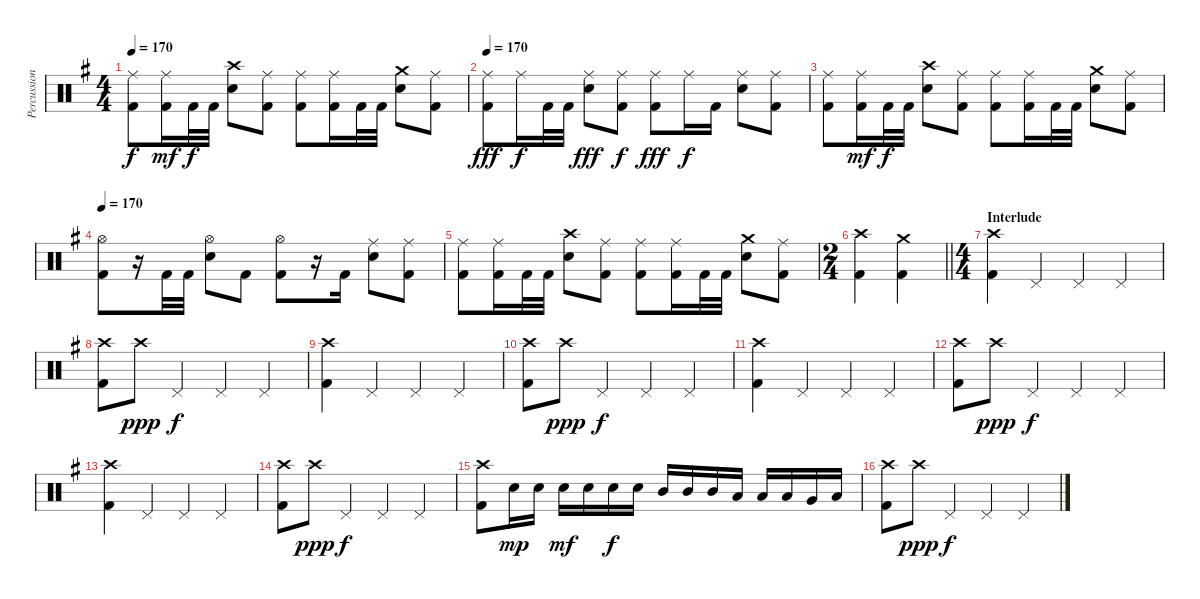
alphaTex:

\track ("Percussion" "Percussion") {instrument percussion}
\staff {score}
\articulation defaults
\ts (4 4)
\tempo 170
\clef neutral
\ks g
("Ride (middle)" "Kick (hit) 2").8{dy f} ("Ride (middle)" "Kick (hit) 2").16{dy mf} "Kick (hit) 2".32{dy f} "Kick (hit) 2".32 ("Crash high (hit)" "Snare (hit) 2").8 ("Ride (middle)" "Kick (hit) 2").8 ("Ride (middle)" "Kick (hit) 2").8 ("Ride (middle)" "Kick (hit) 2").16 "Kick (hit) 2".32 "Kick (hit) 2".32 ("Crash medium (hit)" "Snare (hit) 2").8 ("Ride (middle)" "Kick (hit) 2").8 |
\tempo 170
("Ride (middle)" "Kick (hit) 2").8{dy fff} "Ride (middle)".16{dy f} "Kick (hit) 2".32 "Kick (hit) 2".32 ("Ride (middle)" "Snare (hit) 2").8{dy fff} ("Ride (middle)" "Kick (hit) 2").8{dy f} ("Ride (middle)" "Kick (hit) 2").8{dy fff} "Ride (middle)".16{dy f} "Kick (hit) 2".16 ("Ride (middle)" "Snare (hit) 2").8 ("Ride (middle)" "Kick (hit) 2").8 |
("Ride (middle)" "Kick (hit) 2").8 ("Ride (middle)" "Kick (hit) 2").16{dy mf} "Kick (hit) 2".32{dy f} "Kick (hit) 2".32 ("Crash high (hit)" "Snare (hit) 2").8 ("Ride (middle)" "Kick (hit) 2").8 ("Ride (middle)" "Kick (hit) 2").8 ("Ride (middle)" "Kick (hit) 2").16 "Kick (hit) 2".32 "Kick (hit) 2".32 ("Crash medium (hit)" "Snare (hit) 2").8 ("Ride (middle)" "Kick (hit) 2").8 |
\tempo 170
("Hi-Hat (open)" "Kick (hit) 2").8 r.16 "Kick (hit) 2".32 "Kick (hit) 2".32 ("Hi-Hat (open)" "Snare (hit) 2").8 "Kick (hit) 2".8 ("Hi-Hat (open)" "Kick (hit) 2").8 r.16 "Kick (hit) 2".16 ("Ride (middle)" "Snare (hit) 2").8 ("Ride (middle)" "Kick (hit) 2").8 |
("Ride (middle)" "Kick (hit) 2").8 ("Ride (middle)" "Kick (hit) 2").16 "Kick (hit) 2".32 "Kick (hit) 2".32 ("Crash high (hit)" "Snare (hit) 2").8 ("Ride (middle)" "Kick (hit) 2").8 ("Ride (middle)" "Kick (hit) 2").8 ("Ride (middle)" "Kick (hit) 2").16 "Kick (hit) 2".32 "Kick (hit) 2".32 ("Crash medium (hit)" "Snare (hit) 2").8 ("Ride (middle)" "Kick (hit) 2").8 |
\ts (2 4)
\barLineRight lightlight
("Crash high (hit)" "Kick (hit) 2").4 ("Crash medium (hit)" "Kick (hit) 2").4 |
\ts (4 4)
\section ("" "Interlude")
("Crash high (hit)" "Kick (hit) 2").4 "Pedal Hi-Hat (hit)".4 "Pedal Hi-Hat (hit)".4 "Pedal Hi-Hat (hit)".4 |
("Crash high (hit)" "Kick (hit) 2").8 "Crash high (hit)".8{dy ppp} "Pedal Hi-Hat (hit)".4{dy f} "Pedal Hi-Hat (hit)".4 "Pedal Hi-Hat (hit)".4 |
("Crash high (hit)" "Kick (hit) 2").4 "Pedal Hi-Hat (hit)".4 "Pedal Hi-Hat (hit)".4 "Pedal Hi-Hat (hit)".4 |
("Crash high (hit)" "Kick (hit) 2").8 "Crash high (hit)".8{dy ppp} "Pedal Hi-Hat (hit)".4{dy f} "Pedal Hi-Hat (hit)".4 "Pedal Hi-Hat (hit)".4 |
("Crash high (hit)" "Kick (hit) 2").4 "Pedal Hi-Hat (hit)".4 "Pedal Hi-Hat (hit)".4 "Pedal Hi-Hat (hit)".4 |
("Crash high (hit)" "Kick (hit) 2").8 "Crash high (hit)".8{dy ppp} "Pedal Hi-Hat (hit)".4{dy f} "Pedal Hi-Hat (hit)".4 "Pedal Hi-Hat (hit)".4 |
("Crash high (hit)" "Kick (hit) 2").4 "Pedal Hi-Hat (hit)".4 "Pedal Hi-Hat (hit)".4 "Pedal Hi-Hat (hit)".4 |
("Crash high (hit)" "Kick (hit) 2").8 "Crash high (hit)".8{dy ppp} "Pedal Hi-Hat (hit)".4{dy f} "Pedal Hi-Hat (hit)".4 "Pedal Hi-Hat (hit)".4 |
("Crash high (hit)" "Kick (hit) 2").8 "Snare (hit) 2".16{dy mp} "Snare (hit) 2".16 "Snare (hit) 2".16{dy mf} "Snare (hit) 2".16 "Snare (hit) 2".16{dy f} "Snare (hit) 2".16 "Mid Tom (hit)".16 "Mid Tom (hit)".16 "Mid Tom (hit)".16 "Low Tom (hit)".16 "Low Tom (hit)".16 "Low Tom (hit)".16 "Very Low Tom (hit)".16 "Low Floor Tom (hit)".16 |
("Crash high (hit)" "Kick (hit) 2").8 "Crash high (hit)".8{dy ppp} "Pedal Hi-Hat (hit)".4{dy f} "Pedal Hi-Hat (hit)".4 "Pedal Hi-Hat (hit)".4
